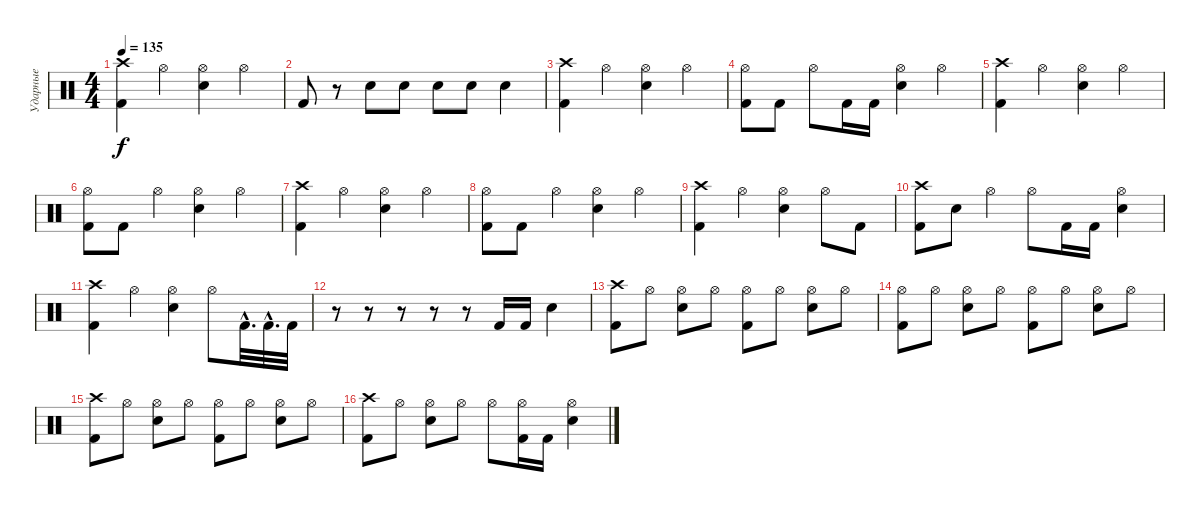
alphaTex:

\track ("Ударные" "Ударные") {instrument percussion}
\staff {score}
\articulation defaults
\ts (4 4)
\tempo 135
\clef neutral
\ks c
("Crash high (hit)" "Kick (hit) 2").4{dy f} "Hi-Hat (open)".4 ("Hi-Hat (open)" "Electric Snare (hit)").4 "Hi-Hat (open)".4 |
"Kick (hit) 2".8 r.8 "Electric Snare (hit)".8 "Electric Snare (hit)".8 "Electric Snare (hit)".8 "Electric Snare (hit)".8 "Electric Snare (hit)".4 |
("Crash high (hit)" "Kick (hit) 2").4 "Hi-Hat (open)".4 ("Hi-Hat (open)" "Electric Snare (hit)").4 "Hi-Hat (open)".4 |
("Hi-Hat (open)" "Kick (hit) 2").8 "Kick (hit) 2".8 "Hi-Hat (open)".8 "Kick (hit) 2".16 "Kick (hit) 2".16 ("Hi-Hat (open)" "Electric Snare (hit)").4 "Hi-Hat (open)".4 |
("Crash high (hit)" "Kick (hit) 2").4 "Hi-Hat (open)".4 ("Hi-Hat (open)" "Electric Snare (hit)").4 "Hi-Hat (open)".4 |
("Hi-Hat (open)" "Kick (hit) 2").8 "Kick (hit) 2".8 "Hi-Hat (open)".4 ("Hi-Hat (open)" "Electric Snare (hit)").4 "Hi-Hat (open)".4 |
("Crash high (hit)" "Kick (hit) 2").4 "Hi-Hat (open)".4 ("Hi-Hat (open)" "Electric Snare (hit)").4 "Hi-Hat (open)".4 |
("Hi-Hat (open)" "Kick (hit) 2").8 "Kick (hit) 2".8 "Hi-Hat (open)".4 ("Hi-Hat (open)" "Electric Snare (hit)").4 "Hi-Hat (open)".4 |
("Crash high (hit)" "Kick (hit) 2").4 "Hi-Hat (open)".4 ("Hi-Hat (open)" "Electric Snare (hit)").4 "Hi-Hat (open)".8 "Kick (hit) 2".8 |
("Crash high (hit)" "Kick (hit) 2").8 "Electric Snare (hit)".8 "Hi-Hat (open)".4 "Hi-Hat (open)".8 "Kick (hit) 2".16 "Kick (hit) 2".16 ("Hi-Hat (open)" "Electric Snare (hit)").4 |
("Crash high (hit)" "Kick (hit) 2").4 "Hi-Hat (open)".4 ("Hi-Hat (open)" "Electric Snare (hit)").4 "Hi-Hat (open)".8 "Kick (hit) 2"{hac}.32{d} "Kick (hit) 2"{hac}.32{d} "Kick (hit) 2".32 |
r.8 r.8 r.8 r.8 r.8 "Kick (hit) 2".16 "Kick (hit) 2".16 "Electric Snare (hit)".4 |
("Crash high (hit)" "Kick (hit) 2").8 "Hi-Hat (open)".8 ("Hi-Hat (open)" "Electric Snare (hit)").8 "Hi-Hat (open)".8 ("Hi-Hat (open)" "Kick (hit) 2").8 "Hi-Hat (open)".8 ("Hi-Hat (open)" "Electric Snare (hit)").8 "Hi-Hat (open)".8 |
("Hi-Hat (open)" "Kick (hit) 2").8 "Hi-Hat (open)".8 ("Hi-Hat (open)" "Electric Snare (hit)").8 "Hi-Hat (open)".8 ("Hi-Hat (open)" "Kick (hit) 2").8 "Hi-Hat (open)".8 ("Hi-Hat (open)" "Electric Snare (hit)").8 "Hi-Hat (open)".8 |
("Crash high (hit)" "Kick (hit) 2").8 "Hi-Hat (open)".8 ("Hi-Hat (open)" "Electric Snare (hit)").8 "Hi-Hat (open)".8 ("Hi-Hat (open)" "Kick (hit) 2").8 "Hi-Hat (open)".8 ("Hi-Hat (open)" "Electric Snare (hit)").8 "Hi-Hat (open)".8 |
("Crash high (hit)" "Kick (hit) 2").8 "Hi-Hat (open)".8 ("Hi-Hat (open)" "Electric Snare (hit)").8 "Hi-Hat (open)".8 "Hi-Hat (open)".8 ("Hi-Hat (open)" "Kick (hit) 2").16 "Kick (hit) 2".16 ("Hi-Hat (open)" "Electric Snare (hit)").4
